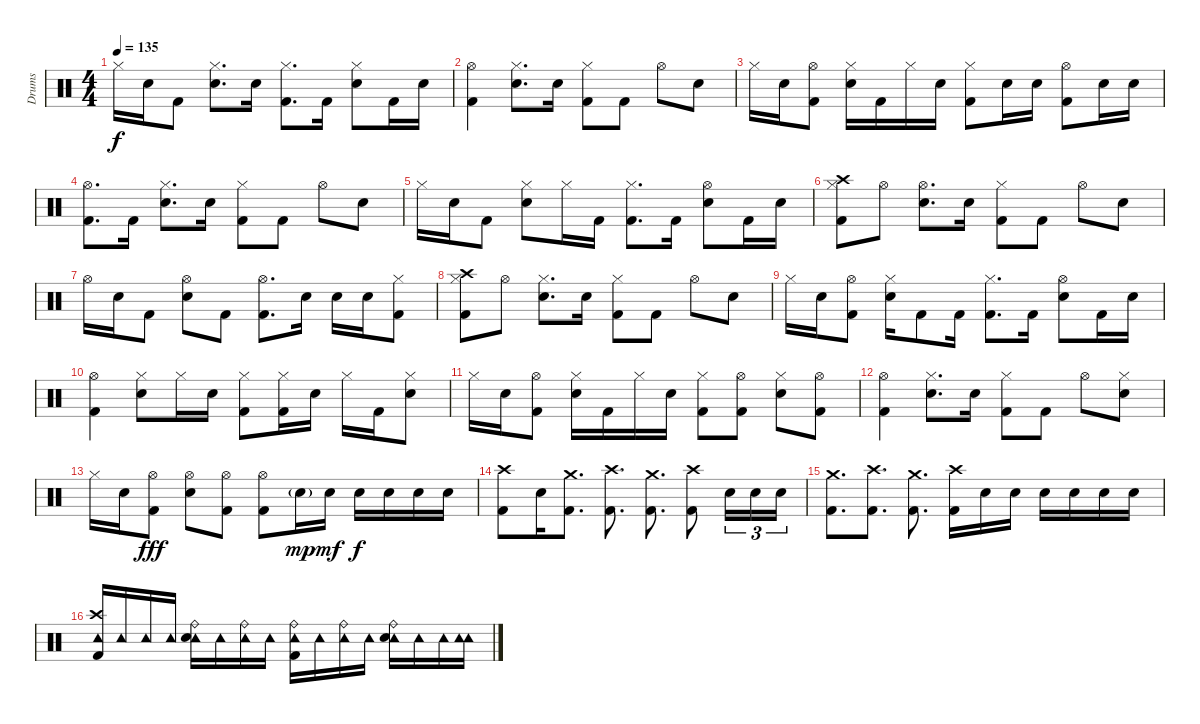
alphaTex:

\track ("Drums" "Drums") {instrument percussion}
\staff {score}
\articulation defaults
\ts (4 4)
\tempo 135
\clef neutral
\ks c "Hi-Hat (closed)".16{dy f} "Electric Snare (hit)".16 "Kick (hit) 2".8
("Hi-Hat (closed)" "Electric Snare (hit)").8{d} "Electric Snare (hit)".16 ("Hi-Hat (closed)" "Kick (hit) 2").8{d} "Kick (hit) 2".16 ("Hi-Hat (closed)" "Electric Snare (hit)").8 "Kick (hit) 2".16 "Electric Snare (hit)".16 |
("Hi-Hat (open)" "Kick (hit) 2").4 ("Hi-Hat (closed)" "Electric Snare (hit)").8{d} "Electric Snare (hit)".16 ("Hi-Hat (closed)" "Kick (hit) 2").8 "Kick (hit) 2".8 "Hi-Hat (open)".8 "Electric Snare (hit)".8 |
"Hi-Hat (closed)".16 "Electric Snare (hit)".16 ("Hi-Hat (open)" "Kick (hit) 2").8 ("Hi-Hat (closed)" "Electric Snare (hit)").16 "Kick (hit) 2".16 "Hi-Hat (closed)".16 "Electric Snare (hit)".16 ("Hi-Hat (closed)" "Kick (hit) 2").8 "Electric Snare (hit)".16 "Electric Snare (hit)".16 ("Hi-Hat (open)" "Kick (hit) 2").8 "Electric Snare (hit)".16 "Electric Snare (hit)".16 |
("Hi-Hat (open)" "Kick (hit) 2").8{d} "Kick (hit) 2".16 ("Hi-Hat (closed)" "Electric Snare (hit)").8{d} "Electric Snare (hit)".16 ("Hi-Hat (closed)" "Kick (hit) 2").8 "Kick (hit) 2".8 "Hi-Hat (open)".8 "Electric Snare (hit)".8 |
"Hi-Hat (closed)".16 "Electric Snare (hit)".16 "Kick (hit) 2".8 ("Hi-Hat (closed)" "Electric Snare (hit)").8 "Hi-Hat (closed)".16 "Kick (hit) 2".16 ("Hi-Hat (closed)" "Kick (hit) 2").8{d} "Kick (hit) 2".16 ("Hi-Hat (open)" "Electric Snare (hit)").8 "Kick (hit) 2".16 "Electric Snare (hit)".16 |
("Crash high (hit)" "Hi-Hat (closed)" "Kick (hit) 2").8 "Hi-Hat (open)".8 ("Hi-Hat (open)" "Electric Snare (hit)").8{d} "Electric Snare (hit)".16 ("Hi-Hat (closed)" "Kick (hit) 2").8 "Kick (hit) 2".8 "Hi-Hat (open)".8 "Electric Snare (hit)".8 |
"Hi-Hat (open)".16 "Electric Snare (hit)".16 "Kick (hit) 2".8 ("Hi-Hat (open)" "Electric Snare (hit)").8 "Kick (hit) 2".8 ("Hi-Hat (open)" "Kick (hit) 2").8{d} "Electric Snare (hit)".16 "Electric Snare (hit)".16 "Electric Snare (hit)".16 ("Hi-Hat (closed)" "Kick (hit) 2").8 |
("Crash high (hit)" "Hi-Hat (closed)" "Kick (hit) 2").8 "Hi-Hat (open)".8 ("Hi-Hat (closed)" "Electric Snare (hit)").8{d} "Electric Snare (hit)".16 ("Hi-Hat (closed)" "Kick (hit) 2").8 "Kick (hit) 2".8 "Hi-Hat (open)".8 "Electric Snare (hit)".8 |
"Hi-Hat (closed)".16 "Electric Snare (hit)".16 ("Hi-Hat (open)" "Kick (hit) 2").8 ("Hi-Hat (closed)" "Electric Snare (hit)").16 "Kick (hit) 2".8 "Kick (hit) 2".16 ("Hi-Hat (closed)" "Kick (hit) 2").8{d} "Kick (hit) 2".16 ("Hi-Hat (open)" "Electric Snare (hit)").8 "Kick (hit) 2".16 "Electric Snare (hit)".16 |
("Hi-Hat (open)" "Kick (hit) 2").4 ("Hi-Hat (closed)" "Electric Snare (hit)").8 "Hi-Hat (closed)".16 "Electric Snare (hit)".16 ("Hi-Hat (closed)" "Kick (hit) 2").8 ("Hi-Hat (closed)" "Kick (hit) 2").16 "Electric Snare (hit)".16 "Hi-Hat (closed)".16 "Kick (hit) 2".16 ("Hi-Hat (closed)" "Electric Snare (hit)").8 |
"Hi-Hat (closed)".16 "Electric Snare (hit)".16 ("Hi-Hat (open)" "Kick (hit) 2").8 ("Hi-Hat (closed)" "Electric Snare (hit)").16 "Kick (hit) 2".16 "Hi-Hat (closed)".16 "Electric Snare (hit)".16 ("Hi-Hat (closed)" "Kick (hit) 2").8 ("Hi-Hat (open)" "Kick (hit) 2").8 ("Hi-Hat (closed)" "Electric Snare (hit)").8 ("Hi-Hat (open)" "Kick (hit) 2").8 |
("Hi-Hat (open)" "Kick (hit) 2").4 ("Hi-Hat (closed)" "Electric Snare (hit)").8{d} "Electric Snare (hit)".16 ("Hi-Hat (closed)" "Kick (hit) 2").8 "Kick (hit) 2".8 "Hi-Hat (open)".8 ("Hi-Hat (closed)" "Electric Snare (hit)").8 |
"Hi-Hat (closed)".16 "Electric Snare (hit)".16 ("Hi-Hat (open)" "Kick (hit) 2").8{dy fff} ("Hi-Hat (open)" "Electric Snare (hit)").8 ("Hi-Hat (open)" "Kick (hit) 2").8 ("Hi-Hat (open)" "Kick (hit) 2").8 "Electric Snare (hit)"{g}.16{dy mp} "Electric Snare (hit)".16{dy mf} "Electric Snare (hit)".16{dy f} "Electric Snare (hit)".16 "Electric Snare (hit)".16 "Electric Snare (hit)".16 |
("Crash high (hit)" "Kick (hit) 2").8 "Electric Snare (hit)".16 ("Crash medium (hit)" "Kick (hit) 2").8{d} ("Crash high (hit)" "Kick (hit) 2").8{d} ("Crash medium (hit)" "Kick (hit) 2").8{d} ("Crash high (hit)" "Kick (hit) 2").8 "Electric Snare (hit)".16{tu (3 2)} "Electric Snare (hit)".16{tu (3 2)} "Electric Snare (hit)".16{tu (3 2)} |
("Crash medium (hit)" "Kick (hit) 2").8{d} ("Crash high (hit)" "Kick (hit) 2").8{d} ("Crash medium (hit)" "Kick (hit) 2").8{d} ("Crash high (hit)" "Kick (hit) 2").16 "Electric Snare (hit)".16 "Electric Snare (hit)".16 "Electric Snare (hit)".16 "Electric Snare (hit)".16 "Electric Snare (hit)".16 "Electric Snare (hit)".16 |
("Tambourine (hit)" "Crash high (hit)" "Kick (hit) 2").16 "Tambourine (hit)".16 "Tambourine (hit)".16 "Tambourine (hit)".16 ("Tambourine (hit)" "Ride (bell)" "Electric Snare (hit)").16 "Tambourine (hit)".16 ("Tambourine (hit)" "Ride (bell)").16 "Tambourine (hit)".16 ("Tambourine (hit)" "Ride (bell)" "Kick (hit) 2").16 "Tambourine (hit)".16 ("Tambourine (hit)" "Ride (bell)").16 "Tambourine (hit)".16 ("Tambourine (hit)" "Ride (bell)" "Electric Snare (hit)").16 "Tambourine (hit)".16 "Tambourine (hit)".16 ("Tambourine (hit)" "Tambourine (hit)").16
